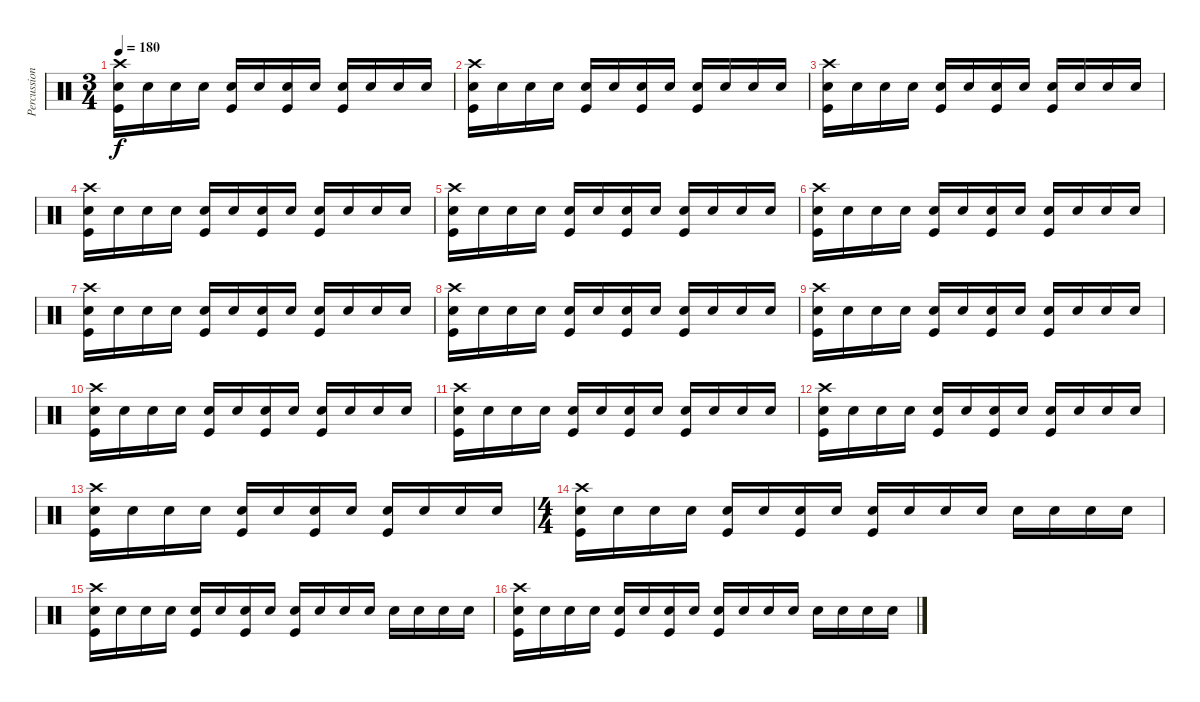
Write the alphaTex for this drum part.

\track ("Percussion" "Percussion") {instrument percussion}
\staff {score}
\articulation defaults
\ts (3 4)
\tempo 180
\clef neutral
\ks c
("Crash high (hit)" "Snare (hit) 2" "Kick (hit)").16{dy f} "Snare (hit) 2".16 "Snare (hit) 2".16 "Snare (hit) 2".16 ("Snare (hit) 2" "Kick (hit)").16 "Snare (hit) 2".16 ("Snare (hit) 2" "Kick (hit)").16 "Snare (hit) 2".16 ("Snare (hit) 2" "Kick (hit)").16 "Snare (hit) 2".16 "Snare (hit) 2".16 "Snare (hit) 2".16 |
("Crash high (hit)" "Snare (hit) 2" "Kick (hit)").16 "Snare (hit) 2".16 "Snare (hit) 2".16 "Snare (hit) 2".16 ("Snare (hit) 2" "Kick (hit)").16 "Snare (hit) 2".16 ("Snare (hit) 2" "Kick (hit)").16 "Snare (hit) 2".16 ("Snare (hit) 2" "Kick (hit)").16 "Snare (hit) 2".16 "Snare (hit) 2".16 "Snare (hit) 2".16 |
("Crash high (hit)" "Snare (hit) 2" "Kick (hit)").16 "Snare (hit) 2".16 "Snare (hit) 2".16 "Snare (hit) 2".16 ("Snare (hit) 2" "Kick (hit)").16 "Snare (hit) 2".16 ("Snare (hit) 2" "Kick (hit)").16 "Snare (hit) 2".16 ("Snare (hit) 2" "Kick (hit)").16 "Snare (hit) 2".16 "Snare (hit) 2".16 "Snare (hit) 2".16 |
("Crash high (hit)" "Snare (hit) 2" "Kick (hit)").16 "Snare (hit) 2".16 "Snare (hit) 2".16 "Snare (hit) 2".16 ("Snare (hit) 2" "Kick (hit)").16 "Snare (hit) 2".16 ("Snare (hit) 2" "Kick (hit)").16 "Snare (hit) 2".16 ("Snare (hit) 2" "Kick (hit)").16 "Snare (hit) 2".16 "Snare (hit) 2".16 "Snare (hit) 2".16 |
("Crash high (hit)" "Snare (hit) 2" "Kick (hit)").16 "Snare (hit) 2".16 "Snare (hit) 2".16 "Snare (hit) 2".16 ("Snare (hit) 2" "Kick (hit)").16 "Snare (hit) 2".16 ("Snare (hit) 2" "Kick (hit)").16 "Snare (hit) 2".16 ("Snare (hit) 2" "Kick (hit)").16 "Snare (hit) 2".16 "Snare (hit) 2".16 "Snare (hit) 2".16 |
("Crash high (hit)" "Snare (hit) 2" "Kick (hit)").16 "Snare (hit) 2".16 "Snare (hit) 2".16 "Snare (hit) 2".16 ("Snare (hit) 2" "Kick (hit)").16 "Snare (hit) 2".16 ("Snare (hit) 2" "Kick (hit)").16 "Snare (hit) 2".16 ("Snare (hit) 2" "Kick (hit)").16 "Snare (hit) 2".16 "Snare (hit) 2".16 "Snare (hit) 2".16 |
("Crash high (hit)" "Snare (hit) 2" "Kick (hit)").16 "Snare (hit) 2".16 "Snare (hit) 2".16 "Snare (hit) 2".16 ("Snare (hit) 2" "Kick (hit)").16 "Snare (hit) 2".16 ("Snare (hit) 2" "Kick (hit)").16 "Snare (hit) 2".16 ("Snare (hit) 2" "Kick (hit)").16 "Snare (hit) 2".16 "Snare (hit) 2".16 "Snare (hit) 2".16 |
("Crash high (hit)" "Snare (hit) 2" "Kick (hit)").16 "Snare (hit) 2".16 "Snare (hit) 2".16 "Snare (hit) 2".16 ("Snare (hit) 2" "Kick (hit)").16 "Snare (hit) 2".16 ("Snare (hit) 2" "Kick (hit)").16 "Snare (hit) 2".16 ("Snare (hit) 2" "Kick (hit)").16 "Snare (hit) 2".16 "Snare (hit) 2".16 "Snare (hit) 2".16 |
("Crash high (hit)" "Snare (hit) 2" "Kick (hit)").16 "Snare (hit) 2".16 "Snare (hit) 2".16 "Snare (hit) 2".16 ("Snare (hit) 2" "Kick (hit)").16 "Snare (hit) 2".16 ("Snare (hit) 2" "Kick (hit)").16 "Snare (hit) 2".16 ("Snare (hit) 2" "Kick (hit)").16 "Snare (hit) 2".16 "Snare (hit) 2".16 "Snare (hit) 2".16 |
("Crash high (hit)" "Snare (hit) 2" "Kick (hit)").16 "Snare (hit) 2".16 "Snare (hit) 2".16 "Snare (hit) 2".16 ("Snare (hit) 2" "Kick (hit)").16 "Snare (hit) 2".16 ("Snare (hit) 2" "Kick (hit)").16 "Snare (hit) 2".16 ("Snare (hit) 2" "Kick (hit)").16 "Snare (hit) 2".16 "Snare (hit) 2".16 "Snare (hit) 2".16 |
("Crash high (hit)" "Snare (hit) 2" "Kick (hit)").16 "Snare (hit) 2".16 "Snare (hit) 2".16 "Snare (hit) 2".16 ("Snare (hit) 2" "Kick (hit)").16 "Snare (hit) 2".16 ("Snare (hit) 2" "Kick (hit)").16 "Snare (hit) 2".16 ("Snare (hit) 2" "Kick (hit)").16 "Snare (hit) 2".16 "Snare (hit) 2".16 "Snare (hit) 2".16 |
("Crash high (hit)" "Snare (hit) 2" "Kick (hit)").16 "Snare (hit) 2".16 "Snare (hit) 2".16 "Snare (hit) 2".16 ("Snare (hit) 2" "Kick (hit)").16 "Snare (hit) 2".16 ("Snare (hit) 2" "Kick (hit)").16 "Snare (hit) 2".16 ("Snare (hit) 2" "Kick (hit)").16 "Snare (hit) 2".16 "Snare (hit) 2".16 "Snare (hit) 2".16 |
("Crash high (hit)" "Snare (hit) 2" "Kick (hit)").16 "Snare (hit) 2".16 "Snare (hit) 2".16 "Snare (hit) 2".16 ("Snare (hit) 2" "Kick (hit)").16 "Snare (hit) 2".16 ("Snare (hit) 2" "Kick (hit)").16 "Snare (hit) 2".16 ("Snare (hit) 2" "Kick (hit)").16 "Snare (hit) 2".16 "Snare (hit) 2".16 "Snare (hit) 2".16 |
\ts (4 4)
("Crash high (hit)" "Snare (hit) 2" "Kick (hit)").16 "Snare (hit) 2".16 "Snare (hit) 2".16 "Snare (hit) 2".16 ("Snare (hit) 2" "Kick (hit)").16 "Snare (hit) 2".16 ("Snare (hit) 2" "Kick (hit)").16 "Snare (hit) 2".16 ("Snare (hit) 2" "Kick (hit)").16 "Snare (hit) 2".16 "Snare (hit) 2".16 "Snare (hit) 2".16 "Snare (hit) 2".16 "Snare (hit) 2".16 "Snare (hit) 2".16 "Snare (hit) 2".16 |
("Crash high (hit)" "Snare (hit) 2" "Kick (hit)").16 "Snare (hit) 2".16 "Snare (hit) 2".16 "Snare (hit) 2".16 ("Snare (hit) 2" "Kick (hit)").16 "Snare (hit) 2".16 ("Snare (hit) 2" "Kick (hit)").16 "Snare (hit) 2".16 ("Snare (hit) 2" "Kick (hit)").16 "Snare (hit) 2".16 "Snare (hit) 2".16 "Snare (hit) 2".16 "Snare (hit) 2".16 "Snare (hit) 2".16 "Snare (hit) 2".16 "Snare (hit) 2".16 |
("Crash high (hit)" "Snare (hit) 2" "Kick (hit)").16 "Snare (hit) 2".16 "Snare (hit) 2".16 "Snare (hit) 2".16 ("Snare (hit) 2" "Kick (hit)").16 "Snare (hit) 2".16 ("Snare (hit) 2" "Kick (hit)").16 "Snare (hit) 2".16 ("Snare (hit) 2" "Kick (hit)").16 "Snare (hit) 2".16 "Snare (hit) 2".16 "Snare (hit) 2".16 "Snare (hit) 2".16 "Snare (hit) 2".16 "Snare (hit) 2".16 "Snare (hit) 2".16
